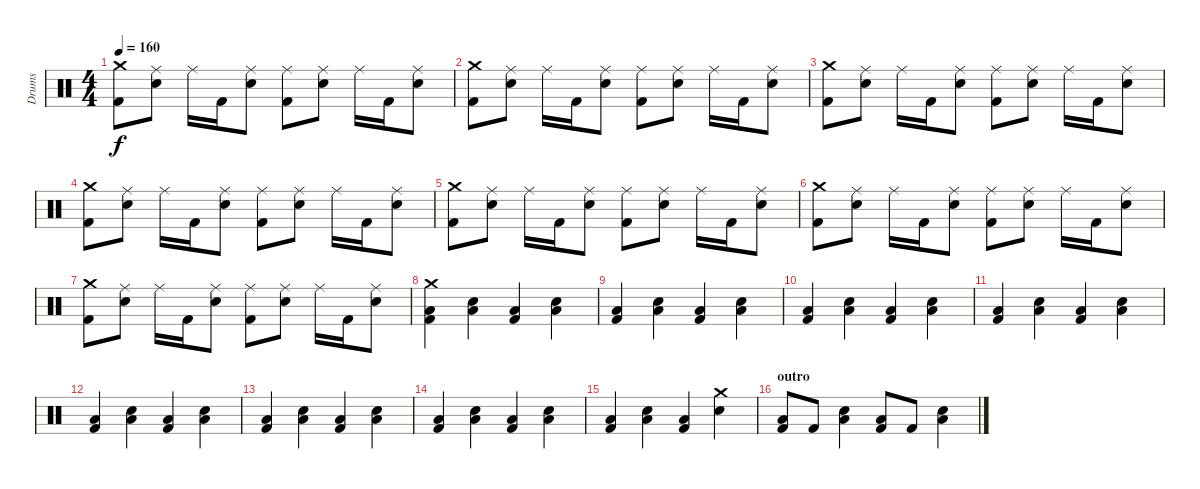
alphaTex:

\track ("Drums" "Drums") {instrument percussion}
\staff {score}
\articulation defaults
\ts (4 4)
\tempo 160
\clef neutral
\ks c
("Crash medium (hit)" "Kick (hit) 2").8{dy f} ("Ride (middle)" "Electric Snare (hit)").8 "Ride (middle)".16 "Kick (hit) 2".16 ("Ride (middle)" "Electric Snare (hit)").8 ("Ride (middle)" "Kick (hit) 2").8 ("Ride (middle)" "Electric Snare (hit)").8 "Ride (middle)".16 "Kick (hit) 2".16 ("Ride (middle)" "Electric Snare (hit)").8 |
("Crash medium (hit)" "Kick (hit) 2").8 ("Ride (middle)" "Electric Snare (hit)").8 "Ride (middle)".16 "Kick (hit) 2".16 ("Ride (middle)" "Electric Snare (hit)").8 ("Ride (middle)" "Kick (hit) 2").8 ("Ride (middle)" "Electric Snare (hit)").8 "Ride (middle)".16 "Kick (hit) 2".16 ("Ride (middle)" "Electric Snare (hit)").8 |
("Crash medium (hit)" "Kick (hit) 2").8 ("Ride (middle)" "Electric Snare (hit)").8 "Ride (middle)".16 "Kick (hit) 2".16 ("Ride (middle)" "Electric Snare (hit)").8 ("Ride (middle)" "Kick (hit) 2").8 ("Ride (middle)" "Electric Snare (hit)").8 "Ride (middle)".16 "Kick (hit) 2".16 ("Ride (middle)" "Electric Snare (hit)").8 |
("Crash medium (hit)" "Kick (hit) 2").8 ("Ride (middle)" "Electric Snare (hit)").8 "Ride (middle)".16 "Kick (hit) 2".16 ("Ride (middle)" "Electric Snare (hit)").8 ("Ride (middle)" "Kick (hit) 2").8 ("Ride (middle)" "Electric Snare (hit)").8 "Ride (middle)".16 "Kick (hit) 2".16 ("Ride (middle)" "Electric Snare (hit)").8 |
("Crash medium (hit)" "Kick (hit) 2").8 ("Ride (middle)" "Electric Snare (hit)").8 "Ride (middle)".16 "Kick (hit) 2".16 ("Ride (middle)" "Electric Snare (hit)").8 ("Ride (middle)" "Kick (hit) 2").8 ("Ride (middle)" "Electric Snare (hit)").8 "Ride (middle)".16 "Kick (hit) 2".16 ("Ride (middle)" "Electric Snare (hit)").8 |
("Crash medium (hit)" "Kick (hit) 2").8 ("Ride (middle)" "Electric Snare (hit)").8 "Ride (middle)".16 "Kick (hit) 2".16 ("Ride (middle)" "Electric Snare (hit)").8 ("Ride (middle)" "Kick (hit) 2").8 ("Ride (middle)" "Electric Snare (hit)").8 "Ride (middle)".16 "Kick (hit) 2".16 ("Ride (middle)" "Electric Snare (hit)").8 |
("Crash medium (hit)" "Kick (hit) 2").8 ("Ride (middle)" "Electric Snare (hit)").8 "Ride (middle)".16 "Kick (hit) 2".16 ("Ride (middle)" "Electric Snare (hit)").8 ("Ride (middle)" "Kick (hit) 2").8 ("Ride (middle)" "Electric Snare (hit)").8 "Ride (middle)".16 "Kick (hit) 2".16 ("Ride (middle)" "Electric Snare (hit)").8 |
("Crash medium (hit)" "Low Floor Tom (hit)" "Kick (hit) 2").4 ("Low Floor Tom (hit)" "Electric Snare (hit)").4 ("Low Floor Tom (hit)" "Kick (hit) 2").4 ("Low Floor Tom (hit)" "Electric Snare (hit)").4 |
("Low Floor Tom (hit)" "Kick (hit) 2").4 ("Low Floor Tom (hit)" "Electric Snare (hit)").4 ("Low Floor Tom (hit)" "Kick (hit) 2").4 ("Low Floor Tom (hit)" "Electric Snare (hit)").4 |
("Low Floor Tom (hit)" "Kick (hit) 2").4 ("Low Floor Tom (hit)" "Electric Snare (hit)").4 ("Low Floor Tom (hit)" "Kick (hit) 2").4 ("Low Floor Tom (hit)" "Electric Snare (hit)").4 |
("Low Floor Tom (hit)" "Kick (hit) 2").4 ("Low Floor Tom (hit)" "Electric Snare (hit)").4 ("Low Floor Tom (hit)" "Kick (hit) 2").4 ("Low Floor Tom (hit)" "Electric Snare (hit)").4 |
("Low Floor Tom (hit)" "Kick (hit) 2").4 ("Low Floor Tom (hit)" "Electric Snare (hit)").4 ("Low Floor Tom (hit)" "Kick (hit) 2").4 ("Low Floor Tom (hit)" "Electric Snare (hit)").4 |
("Low Floor Tom (hit)" "Kick (hit) 2").4 ("Low Floor Tom (hit)" "Electric Snare (hit)").4 ("Low Floor Tom (hit)" "Kick (hit) 2").4 ("Low Floor Tom (hit)" "Electric Snare (hit)").4 |
("Low Floor Tom (hit)" "Kick (hit) 2").4 ("Low Floor Tom (hit)" "Electric Snare (hit)").4 ("Low Floor Tom (hit)" "Kick (hit) 2").4 ("Low Floor Tom (hit)" "Electric Snare (hit)").4 |
("Low Floor Tom (hit)" "Kick (hit) 2").4 ("Low Floor Tom (hit)" "Electric Snare (hit)").4 ("Low Floor Tom (hit)" "Kick (hit) 2").4 ("Crash medium (hit)" "Electric Snare (hit)").4 |
\section ("" "outro")
("Low Floor Tom (hit)" "Kick (hit) 2").8 "Kick (hit) 2".8 ("Low Floor Tom (hit)" "Electric Snare (hit)").4 ("Low Floor Tom (hit)" "Kick (hit) 2").8 "Kick (hit) 2".8 ("Low Floor Tom (hit)" "Electric Snare (hit)").4
